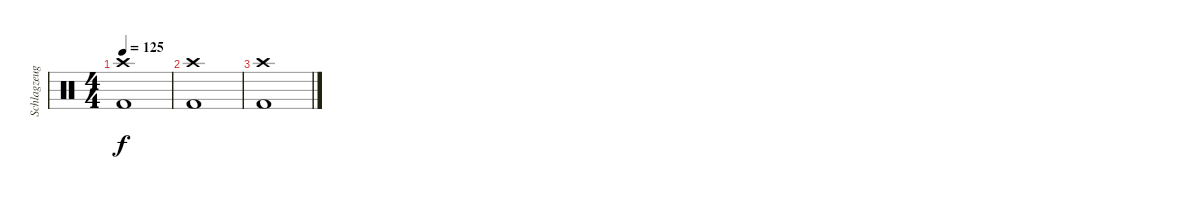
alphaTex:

\track ("Schlagzeug" "Schlagzeug") {instrument percussion}
\staff {score}
\articulation defaults
\ts (4 4)
\tempo 125
\clef neutral
\ks c
("Crash high (hit)" "Kick (hit) 2").1{dy f} |
("Crash high (hit)" "Kick (hit) 2").1 |
("Crash high (hit)" "Kick (hit) 2").1
